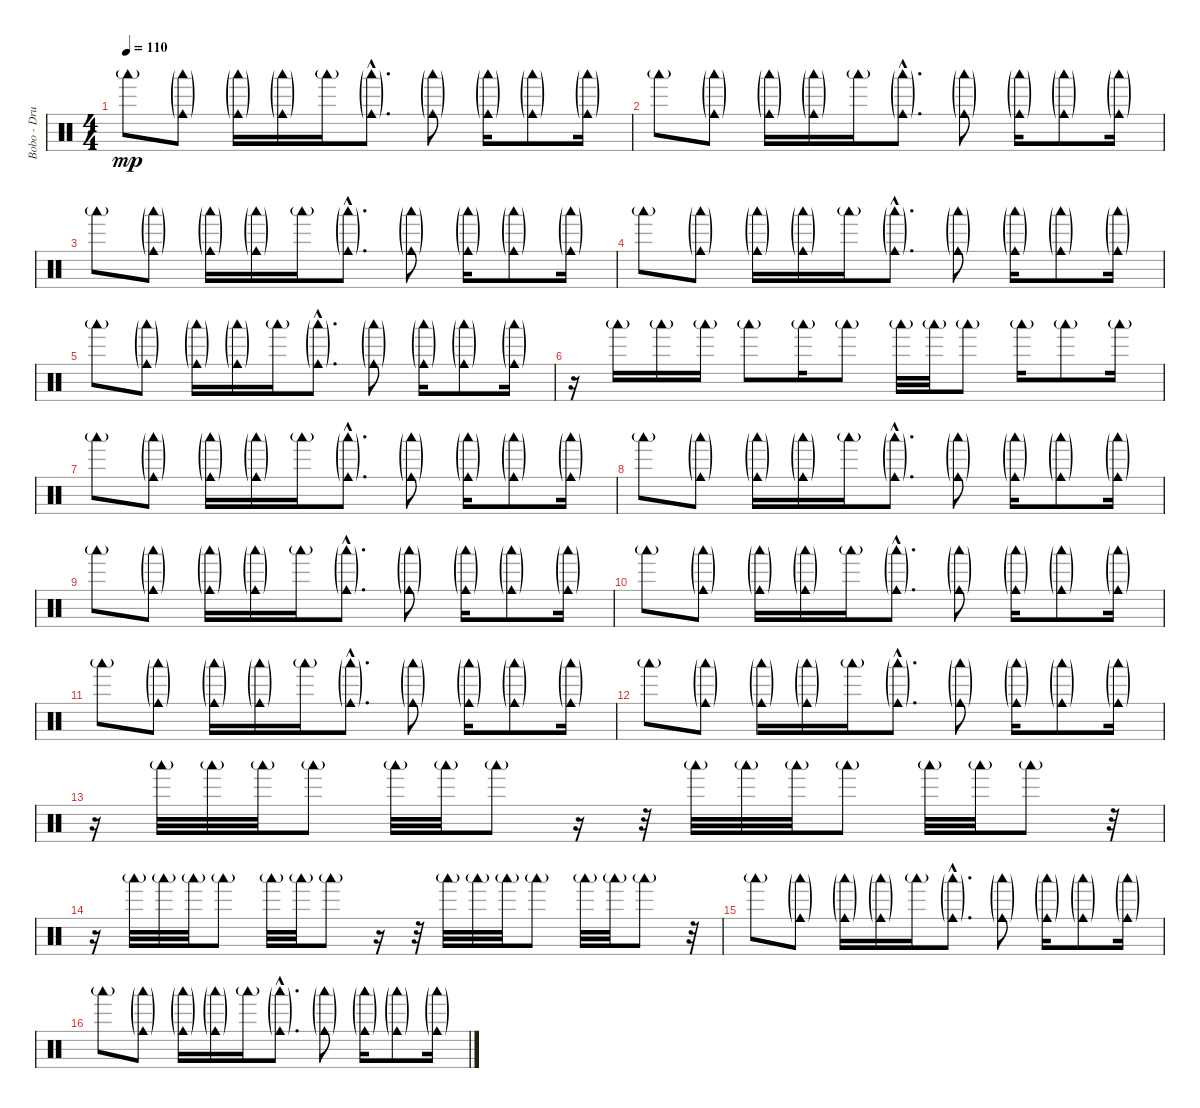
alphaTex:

\track ("Bobo - Drums" "Bobo - Dru") {instrument percussion}
\staff {score}
\articulation defaults
\ts (4 4)
\tempo 110
\clef neutral
\ks c "Woodblock low (hit)"{g}.8{dy mp}
("Woodblock low (hit)"{g} "Cowbell medium (hit)"{g}).8 ("Woodblock low (hit)"{g} "Cowbell medium (hit)"{g}).16 ("Woodblock low (hit)"{g} "Cowbell medium (hit)"{g}).16 "Woodblock low (hit)"{g}.16 ("Woodblock low (hit)"{g hac} "Cowbell medium (hit)"{g hac}).8{d} ("Woodblock low (hit)"{g} "Cowbell medium (hit)"{g}).8 ("Woodblock low (hit)"{g} "Cowbell medium (hit)"{g}).16 ("Woodblock low (hit)"{g} "Cowbell medium (hit)"{g}).8 ("Woodblock low (hit)"{g} "Cowbell medium (hit)"{g}).16 |
"Woodblock low (hit)"{g}.8 ("Woodblock low (hit)"{g} "Cowbell medium (hit)"{g}).8 ("Woodblock low (hit)"{g} "Cowbell medium (hit)"{g}).16 ("Woodblock low (hit)"{g} "Cowbell medium (hit)"{g}).16 "Woodblock low (hit)"{g}.16 ("Woodblock low (hit)"{g hac} "Cowbell medium (hit)"{g hac}).8{d} ("Woodblock low (hit)"{g} "Cowbell medium (hit)"{g}).8 ("Woodblock low (hit)"{g} "Cowbell medium (hit)"{g}).16 ("Woodblock low (hit)"{g} "Cowbell medium (hit)"{g}).8 ("Woodblock low (hit)"{g} "Cowbell medium (hit)"{g}).16 |
"Woodblock low (hit)"{g}.8 ("Woodblock low (hit)"{g} "Cowbell medium (hit)"{g}).8 ("Woodblock low (hit)"{g} "Cowbell medium (hit)"{g}).16 ("Woodblock low (hit)"{g} "Cowbell medium (hit)"{g}).16 "Woodblock low (hit)"{g}.16 ("Woodblock low (hit)"{g hac} "Cowbell medium (hit)"{g hac}).8{d} ("Woodblock low (hit)"{g} "Cowbell medium (hit)"{g}).8 ("Woodblock low (hit)"{g} "Cowbell medium (hit)"{g}).16 ("Woodblock low (hit)"{g} "Cowbell medium (hit)"{g}).8 ("Woodblock low (hit)"{g} "Cowbell medium (hit)"{g}).16 |
"Woodblock low (hit)"{g}.8 ("Woodblock low (hit)"{g} "Cowbell medium (hit)"{g}).8 ("Woodblock low (hit)"{g} "Cowbell medium (hit)"{g}).16 ("Woodblock low (hit)"{g} "Cowbell medium (hit)"{g}).16 "Woodblock low (hit)"{g}.16 ("Woodblock low (hit)"{g hac} "Cowbell medium (hit)"{g hac}).8{d} ("Woodblock low (hit)"{g} "Cowbell medium (hit)"{g}).8 ("Woodblock low (hit)"{g} "Cowbell medium (hit)"{g}).16 ("Woodblock low (hit)"{g} "Cowbell medium (hit)"{g}).8 ("Woodblock low (hit)"{g} "Cowbell medium (hit)"{g}).16 |
"Woodblock low (hit)"{g}.8 ("Woodblock low (hit)"{g} "Cowbell medium (hit)"{g}).8 ("Woodblock low (hit)"{g} "Cowbell medium (hit)"{g}).16 ("Woodblock low (hit)"{g} "Cowbell medium (hit)"{g}).16 "Woodblock low (hit)"{g}.16 ("Woodblock low (hit)"{g hac} "Cowbell medium (hit)"{g hac}).8{d} ("Woodblock low (hit)"{g} "Cowbell medium (hit)"{g}).8 ("Woodblock low (hit)"{g} "Cowbell medium (hit)"{g}).16 ("Woodblock low (hit)"{g} "Cowbell medium (hit)"{g}).8 ("Woodblock low (hit)"{g} "Cowbell medium (hit)"{g}).16 |
r.16 "Woodblock low (hit)"{g}.16 "Woodblock low (hit)"{g}.16 "Woodblock low (hit)"{g}.16 "Woodblock low (hit)"{g}.8 "Woodblock low (hit)"{g}.16 "Woodblock low (hit)"{g}.8 "Woodblock low (hit)"{g}.32 "Woodblock low (hit)"{g}.32 "Woodblock low (hit)"{g}.8 "Woodblock low (hit)"{g}.16 "Woodblock low (hit)"{g}.8 "Woodblock low (hit)"{g}.16 |
"Woodblock low (hit)"{g}.8 ("Woodblock low (hit)"{g} "Cowbell medium (hit)"{g}).8 ("Woodblock low (hit)"{g} "Cowbell medium (hit)"{g}).16 ("Woodblock low (hit)"{g} "Cowbell medium (hit)"{g}).16 "Woodblock low (hit)"{g}.16 ("Woodblock low (hit)"{g hac} "Cowbell medium (hit)"{g hac}).8{d} ("Woodblock low (hit)"{g} "Cowbell medium (hit)"{g}).8 ("Woodblock low (hit)"{g} "Cowbell medium (hit)"{g}).16 ("Woodblock low (hit)"{g} "Cowbell medium (hit)"{g}).8 ("Woodblock low (hit)"{g} "Cowbell medium (hit)"{g}).16 |
"Woodblock low (hit)"{g}.8 ("Woodblock low (hit)"{g} "Cowbell medium (hit)"{g}).8 ("Woodblock low (hit)"{g} "Cowbell medium (hit)"{g}).16 ("Woodblock low (hit)"{g} "Cowbell medium (hit)"{g}).16 "Woodblock low (hit)"{g}.16 ("Woodblock low (hit)"{g hac} "Cowbell medium (hit)"{g hac}).8{d} ("Woodblock low (hit)"{g} "Cowbell medium (hit)"{g}).8 ("Woodblock low (hit)"{g} "Cowbell medium (hit)"{g}).16 ("Woodblock low (hit)"{g} "Cowbell medium (hit)"{g}).8 ("Woodblock low (hit)"{g} "Cowbell medium (hit)"{g}).16 |
"Woodblock low (hit)"{g}.8 ("Woodblock low (hit)"{g} "Cowbell medium (hit)"{g}).8 ("Woodblock low (hit)"{g} "Cowbell medium (hit)"{g}).16 ("Woodblock low (hit)"{g} "Cowbell medium (hit)"{g}).16 "Woodblock low (hit)"{g}.16 ("Woodblock low (hit)"{g hac} "Cowbell medium (hit)"{g hac}).8{d} ("Woodblock low (hit)"{g} "Cowbell medium (hit)"{g}).8 ("Woodblock low (hit)"{g} "Cowbell medium (hit)"{g}).16 ("Woodblock low (hit)"{g} "Cowbell medium (hit)"{g}).8 ("Woodblock low (hit)"{g} "Cowbell medium (hit)"{g}).16 |
"Woodblock low (hit)"{g}.8 ("Woodblock low (hit)"{g} "Cowbell medium (hit)"{g}).8 ("Woodblock low (hit)"{g} "Cowbell medium (hit)"{g}).16 ("Woodblock low (hit)"{g} "Cowbell medium (hit)"{g}).16 "Woodblock low (hit)"{g}.16 ("Woodblock low (hit)"{g hac} "Cowbell medium (hit)"{g hac}).8{d} ("Woodblock low (hit)"{g} "Cowbell medium (hit)"{g}).8 ("Woodblock low (hit)"{g} "Cowbell medium (hit)"{g}).16 ("Woodblock low (hit)"{g} "Cowbell medium (hit)"{g}).8 ("Woodblock low (hit)"{g} "Cowbell medium (hit)"{g}).16 |
"Woodblock low (hit)"{g}.8 ("Woodblock low (hit)"{g} "Cowbell medium (hit)"{g}).8 ("Woodblock low (hit)"{g} "Cowbell medium (hit)"{g}).16 ("Woodblock low (hit)"{g} "Cowbell medium (hit)"{g}).16 "Woodblock low (hit)"{g}.16 ("Woodblock low (hit)"{g hac} "Cowbell medium (hit)"{g hac}).8{d} ("Woodblock low (hit)"{g} "Cowbell medium (hit)"{g}).8 ("Woodblock low (hit)"{g} "Cowbell medium (hit)"{g}).16 ("Woodblock low (hit)"{g} "Cowbell medium (hit)"{g}).8 ("Woodblock low (hit)"{g} "Cowbell medium (hit)"{g}).16 |
"Woodblock low (hit)"{g}.8 ("Woodblock low (hit)"{g} "Cowbell medium (hit)"{g}).8 ("Woodblock low (hit)"{g} "Cowbell medium (hit)"{g}).16 ("Woodblock low (hit)"{g} "Cowbell medium (hit)"{g}).16 "Woodblock low (hit)"{g}.16 ("Woodblock low (hit)"{g hac} "Cowbell medium (hit)"{g hac}).8{d} ("Woodblock low (hit)"{g} "Cowbell medium (hit)"{g}).8 ("Woodblock low (hit)"{g} "Cowbell medium (hit)"{g}).16 ("Woodblock low (hit)"{g} "Cowbell medium (hit)"{g}).8 ("Woodblock low (hit)"{g} "Cowbell medium (hit)"{g}).16 |
r.16 "Woodblock low (hit)"{g}.32 "Woodblock low (hit)"{g}.32 "Woodblock low (hit)"{g}.32 "Woodblock low (hit)"{g}.8 "Woodblock low (hit)"{g}.32 "Woodblock low (hit)"{g}.32 "Woodblock low (hit)"{g}.8 r.16 r.32 "Woodblock low (hit)"{g}.32 "Woodblock low (hit)"{g}.32 "Woodblock low (hit)"{g}.32 "Woodblock low (hit)"{g}.8 "Woodblock low (hit)"{g}.32 "Woodblock low (hit)"{g}.32 "Woodblock low (hit)"{g}.8 r.32 |
r.16 "Woodblock low (hit)"{g}.32 "Woodblock low (hit)"{g}.32 "Woodblock low (hit)"{g}.32 "Woodblock low (hit)"{g}.8 "Woodblock low (hit)"{g}.32 "Woodblock low (hit)"{g}.32 "Woodblock low (hit)"{g}.8 r.16 r.32 "Woodblock low (hit)"{g}.32 "Woodblock low (hit)"{g}.32 "Woodblock low (hit)"{g}.32 "Woodblock low (hit)"{g}.8 "Woodblock low (hit)"{g}.32 "Woodblock low (hit)"{g}.32 "Woodblock low (hit)"{g}.8 r.32 |
"Woodblock low (hit)"{g}.8 ("Woodblock low (hit)"{g} "Cowbell medium (hit)"{g}).8 ("Woodblock low (hit)"{g} "Cowbell medium (hit)"{g}).16 ("Woodblock low (hit)"{g} "Cowbell medium (hit)"{g}).16 "Woodblock low (hit)"{g}.16 ("Woodblock low (hit)"{g hac} "Cowbell medium (hit)"{g hac}).8{d} ("Woodblock low (hit)"{g} "Cowbell medium (hit)"{g}).8 ("Woodblock low (hit)"{g} "Cowbell medium (hit)"{g}).16 ("Woodblock low (hit)"{g} "Cowbell medium (hit)"{g}).8 ("Woodblock low (hit)"{g} "Cowbell medium (hit)"{g}).16 |
"Woodblock low (hit)"{g}.8 ("Woodblock low (hit)"{g} "Cowbell medium (hit)"{g}).8 ("Woodblock low (hit)"{g} "Cowbell medium (hit)"{g}).16 ("Woodblock low (hit)"{g} "Cowbell medium (hit)"{g}).16 "Woodblock low (hit)"{g}.16 ("Woodblock low (hit)"{g hac} "Cowbell medium (hit)"{g hac}).8{d} ("Woodblock low (hit)"{g} "Cowbell medium (hit)"{g}).8 ("Woodblock low (hit)"{g} "Cowbell medium (hit)"{g}).16 ("Woodblock low (hit)"{g} "Cowbell medium (hit)"{g}).8 ("Woodblock low (hit)"{g} "Cowbell medium (hit)"{g}).16
